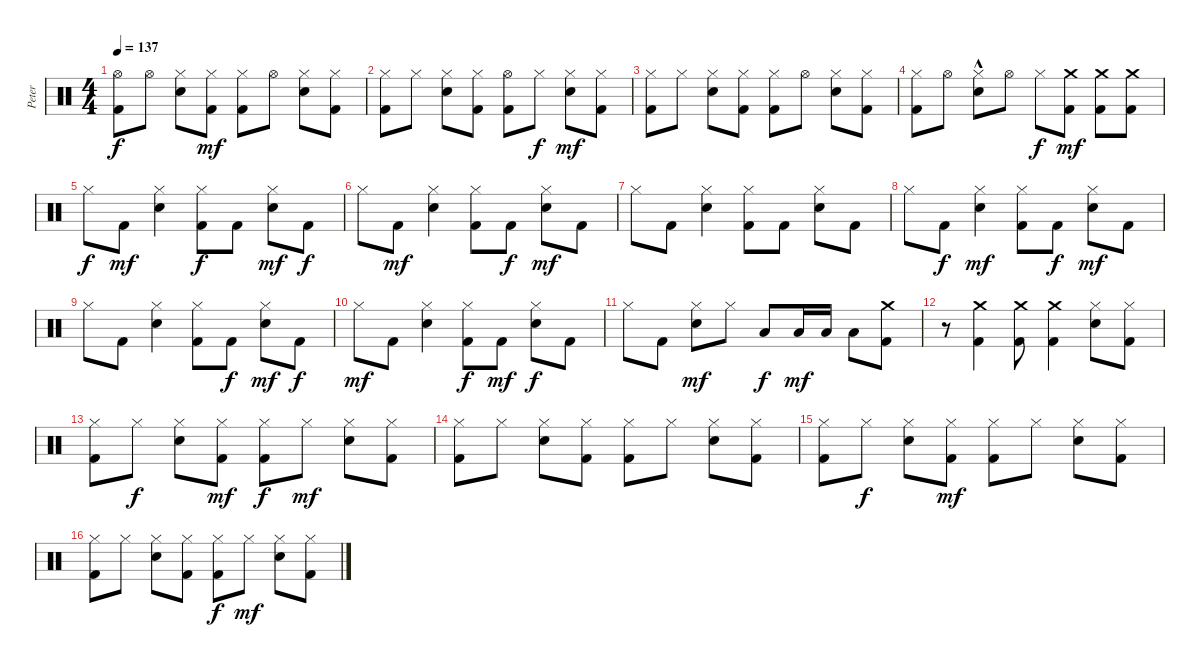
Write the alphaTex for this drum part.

\track ("Peter" "Peter") {instrument percussion}
\staff {score}
\articulation defaults
\ts (4 4)
\tempo 137
\clef neutral
\ks c
("Hi-Hat (open)" "Kick (hit) 2").8{dy f} "Hi-Hat (open)".8 ("Hi-Hat (closed)" "Electric Snare (hit)").8 ("Hi-Hat (closed)" "Kick (hit) 2").8{dy mf} ("Hi-Hat (closed)" "Kick (hit) 2").8 "Hi-Hat (open)".8 ("Hi-Hat (closed)" "Electric Snare (hit)").8 ("Kick (hit) 2" "Hi-Hat (closed)").8 |
("Hi-Hat (closed)" "Kick (hit) 2").8 "Hi-Hat (closed)".8 ("Hi-Hat (closed)" "Electric Snare (hit)").8 ("Hi-Hat (closed)" "Kick (hit) 2").8 ("Kick (hit) 2" "Hi-Hat (open)").8 "Hi-Hat (closed)".8{dy f} ("Electric Snare (hit)" "Hi-Hat (closed)").8{dy mf} ("Hi-Hat (closed)" "Kick (hit) 2").8 |
("Kick (hit) 2" "Hi-Hat (closed)").8 "Hi-Hat (closed)".8 ("Hi-Hat (closed)" "Electric Snare (hit)").8 ("Kick (hit) 2" "Hi-Hat (closed)").8 ("Kick (hit) 2" "Hi-Hat (closed)").8 "Hi-Hat (open)".8 ("Electric Snare (hit)" "Hi-Hat (closed)").8 ("Kick (hit) 2" "Hi-Hat (closed)").8 |
("Hi-Hat (closed)" "Kick (hit) 2").8 "Hi-Hat (open)".8 ("Electric Snare (hit)"{hac} "Hi-Hat (closed)").8 "Hi-Hat (open)".8 "Hi-Hat (closed)".8{dy f} ("Crash medium (hit)" "Kick (hit) 2").8{dy mf} ("Crash medium (hit)" "Kick (hit) 2").8 ("Kick (hit) 2" "Crash medium (hit)").8 |
"Hi-Hat (closed)".8{dy f} "Kick (hit) 2".8{dy mf} ("Hi-Hat (closed)" "Electric Snare (hit)").4 ("Hi-Hat (closed)" "Kick (hit) 2").8{dy f} "Kick (hit) 2".8 ("Electric Snare (hit)" "Hi-Hat (closed)").8{dy mf} "Kick (hit) 2".8{dy f} |
"Hi-Hat (closed)".8 "Kick (hit) 2".8{dy mf} ("Hi-Hat (closed)" "Electric Snare (hit)").4 ("Hi-Hat (closed)" "Kick (hit) 2").8 "Kick (hit) 2".8{dy f} ("Electric Snare (hit)" "Hi-Hat (closed)").8{dy mf} "Kick (hit) 2".8 |
"Hi-Hat (closed)".8 "Kick (hit) 2".8 ("Hi-Hat (closed)" "Electric Snare (hit)").4 ("Hi-Hat (closed)" "Kick (hit) 2").8 "Kick (hit) 2".8 ("Hi-Hat (closed)" "Electric Snare (hit)").8 "Kick (hit) 2".8 |
"Hi-Hat (closed)".8 "Kick (hit) 2".8{dy f} ("Hi-Hat (closed)" "Electric Snare (hit)").4{dy mf} ("Hi-Hat (closed)" "Kick (hit) 2").8 "Kick (hit) 2".8{dy f} ("Hi-Hat (closed)" "Electric Snare (hit)").8{dy mf} "Kick (hit) 2".8 |
"Hi-Hat (closed)".8 "Kick (hit) 2".8 ("Electric Snare (hit)" "Hi-Hat (closed)").4 ("Hi-Hat (closed)" "Kick (hit) 2").8 "Kick (hit) 2".8{dy f} ("Electric Snare (hit)" "Hi-Hat (closed)").8{dy mf} "Kick (hit) 2".8{dy f} |
"Hi-Hat (closed)".8{dy mf} "Kick (hit) 2".8 ("Electric Snare (hit)" "Hi-Hat (closed)").4 ("Hi-Hat (closed)" "Kick (hit) 2").8{dy f} "Kick (hit) 2".8{dy mf} ("Hi-Hat (closed)" "Electric Snare (hit)").8{dy f} "Kick (hit) 2".8 |
"Hi-Hat (closed)".8 "Kick (hit) 2".8 ("Electric Snare (hit)" "Hi-Hat (closed)").8{dy mf} "Hi-Hat (closed)".8 "Low Tom (hit)".8{dy f} "Low Tom (hit)".16{dy mf} "Low Tom (hit)".16 "Low Tom (hit)".8 ("Crash medium (hit)" "Kick (hit) 2").8 |
r.8 ("Crash medium (hit)" "Kick (hit) 2").4 ("Crash medium (hit)" "Kick (hit) 2").8 ("Crash medium (hit)" "Kick (hit) 2").4 ("Hi-Hat (closed)" "Electric Snare (hit)").8 ("Hi-Hat (closed)" "Kick (hit) 2").8 |
("Hi-Hat (closed)" "Kick (hit) 2").8 "Hi-Hat (closed)".8{dy f} ("Hi-Hat (closed)" "Electric Snare (hit)").8 ("Hi-Hat (closed)" "Kick (hit) 2").8{dy mf} ("Hi-Hat (closed)" "Kick (hit) 2").8{dy f} "Hi-Hat (closed)".8{dy mf} ("Electric Snare (hit)" "Hi-Hat (closed)").8 ("Hi-Hat (closed)" "Kick (hit) 2").8 |
("Hi-Hat (closed)" "Kick (hit) 2").8 "Hi-Hat (closed)".8 ("Hi-Hat (closed)" "Electric Snare (hit)").8 ("Hi-Hat (closed)" "Kick (hit) 2").8 ("Hi-Hat (closed)" "Kick (hit) 2").8 "Hi-Hat (closed)".8 ("Electric Snare (hit)" "Hi-Hat (closed)").8 ("Kick (hit) 2" "Hi-Hat (closed)").8 |
("Kick (hit) 2" "Hi-Hat (closed)").8 "Hi-Hat (closed)".8{dy f} ("Hi-Hat (closed)" "Electric Snare (hit)").8 ("Hi-Hat (closed)" "Kick (hit) 2").8{dy mf} ("Hi-Hat (closed)" "Kick (hit) 2").8 "Hi-Hat (closed)".8 ("Electric Snare (hit)" "Hi-Hat (closed)").8 ("Kick (hit) 2" "Hi-Hat (closed)").8 |
("Kick (hit) 2" "Hi-Hat (closed)").8 "Hi-Hat (closed)".8 ("Hi-Hat (closed)" "Electric Snare (hit)").8 ("Hi-Hat (closed)" "Kick (hit) 2").8 ("Hi-Hat (closed)" "Kick (hit) 2").8{dy f} "Hi-Hat (closed)".8{dy mf} ("Hi-Hat (closed)" "Electric Snare (hit)").8 ("Kick (hit) 2" "Hi-Hat (closed)").8
